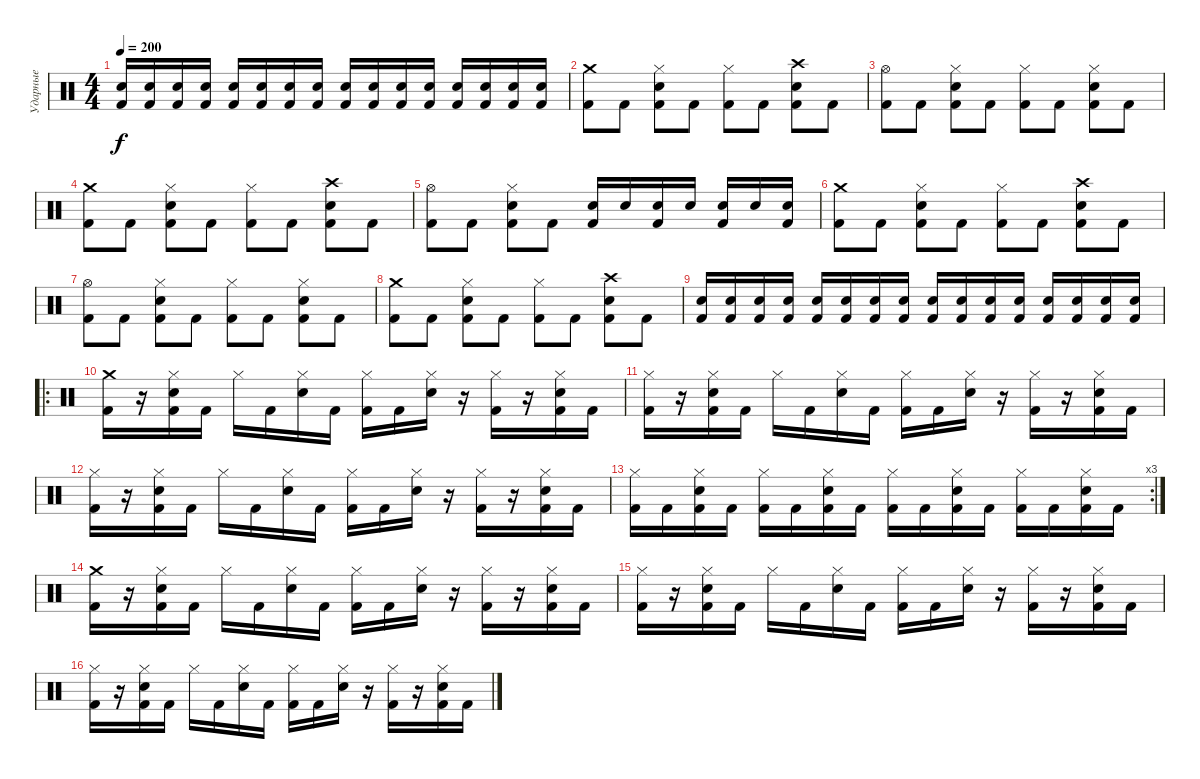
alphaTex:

\track ("Ударные" "Ударные") {instrument percussion}
\staff {score}
\articulation defaults
\ts (4 4)
\tempo 200
\clef neutral
\ks c
("Snare (hit) 2" "Kick (hit) 2").16{dy f} ("Snare (hit) 2" "Kick (hit) 2").16 ("Snare (hit) 2" "Kick (hit) 2").16 ("Snare (hit) 2" "Kick (hit) 2").16 ("Snare (hit) 2" "Kick (hit) 2").16 ("Snare (hit) 2" "Kick (hit) 2").16 ("Snare (hit) 2" "Kick (hit) 2").16 ("Snare (hit) 2" "Kick (hit) 2").16 ("Snare (hit) 2" "Kick (hit) 2").16 ("Snare (hit) 2" "Kick (hit) 2").16 ("Snare (hit) 2" "Kick (hit) 2").16 ("Snare (hit) 2" "Kick (hit) 2").16 ("Snare (hit) 2" "Kick (hit) 2").16 ("Snare (hit) 2" "Kick (hit) 2").16 ("Snare (hit) 2" "Kick (hit) 2").16 ("Snare (hit) 2" "Kick (hit) 2").16 |
("Crash medium (hit)" "Kick (hit) 2").8 "Kick (hit) 2".8 ("Hi-Hat (closed)" "Snare (hit) 2" "Kick (hit) 2").8 "Kick (hit) 2".8 ("Hi-Hat (closed)" "Kick (hit) 2").8 "Kick (hit) 2".8 ("Crash high (hit)" "Snare (hit) 2" "Kick (hit) 2").8 "Kick (hit) 2".8 |
("Hi-Hat (open)" "Kick (hit) 2").8 "Kick (hit) 2".8 ("Hi-Hat (closed)" "Snare (hit) 2" "Kick (hit) 2").8 "Kick (hit) 2".8 ("Hi-Hat (closed)" "Kick (hit) 2").8 "Kick (hit) 2".8 ("Hi-Hat (closed)" "Snare (hit) 2" "Kick (hit) 2").8 "Kick (hit) 2".8 |
("Crash medium (hit)" "Kick (hit) 2").8 "Kick (hit) 2".8 ("Hi-Hat (closed)" "Snare (hit) 2" "Kick (hit) 2").8 "Kick (hit) 2".8 ("Hi-Hat (closed)" "Kick (hit) 2").8 "Kick (hit) 2".8 ("Crash high (hit)" "Snare (hit) 2" "Kick (hit) 2").8 "Kick (hit) 2".8 |
("Hi-Hat (open)" "Kick (hit) 2").8 "Kick (hit) 2".8 ("Hi-Hat (closed)" "Snare (hit) 2" "Kick (hit) 2").8 "Kick (hit) 2".8 ("Snare (hit) 2" "Kick (hit) 2").16 "Snare (hit) 2".16 ("Snare (hit) 2" "Kick (hit) 2").16 "Snare (hit) 2".16 ("Snare (hit) 2" "Kick (hit) 2").16 "Snare (hit) 2".16 ("Snare (hit) 2" "Kick (hit) 2").16 |
("Crash medium (hit)" "Kick (hit) 2").8 "Kick (hit) 2".8 ("Hi-Hat (closed)" "Snare (hit) 2" "Kick (hit) 2").8 "Kick (hit) 2".8 ("Hi-Hat (closed)" "Kick (hit) 2").8 "Kick (hit) 2".8 ("Crash high (hit)" "Snare (hit) 2" "Kick (hit) 2").8 "Kick (hit) 2".8 |
("Hi-Hat (open)" "Kick (hit) 2").8 "Kick (hit) 2".8 ("Hi-Hat (closed)" "Snare (hit) 2" "Kick (hit) 2").8 "Kick (hit) 2".8 ("Hi-Hat (closed)" "Kick (hit) 2").8 "Kick (hit) 2".8 ("Hi-Hat (closed)" "Snare (hit) 2" "Kick (hit) 2").8 "Kick (hit) 2".8 |
("Crash medium (hit)" "Kick (hit) 2").8 "Kick (hit) 2".8 ("Hi-Hat (closed)" "Snare (hit) 2" "Kick (hit) 2").8 "Kick (hit) 2".8 ("Hi-Hat (closed)" "Kick (hit) 2").8 "Kick (hit) 2".8 ("Crash high (hit)" "Snare (hit) 2" "Kick (hit) 2").8 "Kick (hit) 2".8 |
("Snare (hit) 2" "Kick (hit) 2").16 ("Snare (hit) 2" "Kick (hit) 2").16 ("Snare (hit) 2" "Kick (hit) 2").16 ("Snare (hit) 2" "Kick (hit) 2").16 ("Snare (hit) 2" "Kick (hit) 2").16 ("Snare (hit) 2" "Kick (hit) 2").16 ("Snare (hit) 2" "Kick (hit) 2").16 ("Snare (hit) 2" "Kick (hit) 2").16 ("Snare (hit) 2" "Kick (hit) 2").16 ("Snare (hit) 2" "Kick (hit) 2").16 ("Snare (hit) 2" "Kick (hit) 2").16 ("Snare (hit) 2" "Kick (hit) 2").16 ("Snare (hit) 2" "Kick (hit) 2").16 ("Snare (hit) 2" "Kick (hit) 2").16 ("Snare (hit) 2" "Kick (hit) 2").16 ("Snare (hit) 2" "Kick (hit) 2").16 |
\ro
("Crash medium (hit)" "Kick (hit) 2").16 r.16 ("Hi-Hat (closed)" "Snare (hit) 2" "Kick (hit) 2").16 "Kick (hit) 2".16 "Hi-Hat (closed)".16 "Kick (hit) 2".16 ("Hi-Hat (closed)" "Snare (hit) 2").16 "Kick (hit) 2".16 ("Hi-Hat (closed)" "Kick (hit) 2").16 "Kick (hit) 2".16 ("Hi-Hat (closed)" "Snare (hit) 2").16 r.16 ("Hi-Hat (closed)" "Kick (hit) 2").16 r.16 ("Hi-Hat (closed)" "Snare (hit) 2" "Kick (hit) 2").16 "Kick (hit) 2".16 |
("Hi-Hat (closed)" "Kick (hit) 2").16 r.16 ("Hi-Hat (closed)" "Snare (hit) 2" "Kick (hit) 2").16 "Kick (hit) 2".16 "Hi-Hat (closed)".16 "Kick (hit) 2".16 ("Hi-Hat (closed)" "Snare (hit) 2").16 "Kick (hit) 2".16 ("Hi-Hat (closed)" "Kick (hit) 2").16 "Kick (hit) 2".16 ("Hi-Hat (closed)" "Snare (hit) 2").16 r.16 ("Hi-Hat (closed)" "Kick (hit) 2").16 r.16 ("Hi-Hat (closed)" "Snare (hit) 2" "Kick (hit) 2").16 "Kick (hit) 2".16 |
("Hi-Hat (closed)" "Kick (hit) 2").16 r.16 ("Hi-Hat (closed)" "Snare (hit) 2" "Kick (hit) 2").16 "Kick (hit) 2".16 "Hi-Hat (closed)".16 "Kick (hit) 2".16 ("Hi-Hat (closed)" "Snare (hit) 2").16 "Kick (hit) 2".16 ("Hi-Hat (closed)" "Kick (hit) 2").16 "Kick (hit) 2".16 ("Hi-Hat (closed)" "Snare (hit) 2").16 r.16 ("Hi-Hat (closed)" "Kick (hit) 2").16 r.16 ("Hi-Hat (closed)" "Snare (hit) 2" "Kick (hit) 2").16 "Kick (hit) 2".16 |
\rc 3
("Hi-Hat (closed)" "Kick (hit) 2").16 "Kick (hit) 2".16 ("Hi-Hat (closed)" "Snare (hit) 2" "Kick (hit) 2").16 "Kick (hit) 2".16 ("Hi-Hat (closed)" "Kick (hit) 2").16 "Kick (hit) 2".16 ("Hi-Hat (closed)" "Snare (hit) 2" "Kick (hit) 2").16 "Kick (hit) 2".16 ("Hi-Hat (closed)" "Kick (hit) 2").16 "Kick (hit) 2".16 ("Hi-Hat (closed)" "Snare (hit) 2" "Kick (hit) 2").16 "Kick (hit) 2".16 ("Hi-Hat (closed)" "Kick (hit) 2").16 "Kick (hit) 2".16 ("Hi-Hat (closed)" "Snare (hit) 2" "Kick (hit) 2").16 "Kick (hit) 2".16 |
("Crash medium (hit)" "Kick (hit) 2").16 r.16 ("Hi-Hat (closed)" "Snare (hit) 2" "Kick (hit) 2").16 "Kick (hit) 2".16 "Hi-Hat (closed)".16 "Kick (hit) 2".16 ("Hi-Hat (closed)" "Snare (hit) 2").16 "Kick (hit) 2".16 ("Hi-Hat (closed)" "Kick (hit) 2").16 "Kick (hit) 2".16 ("Hi-Hat (closed)" "Snare (hit) 2").16 r.16 ("Hi-Hat (closed)" "Kick (hit) 2").16 r.16 ("Hi-Hat (closed)" "Snare (hit) 2" "Kick (hit) 2").16 "Kick (hit) 2".16 |
("Hi-Hat (closed)" "Kick (hit) 2").16 r.16 ("Hi-Hat (closed)" "Snare (hit) 2" "Kick (hit) 2").16 "Kick (hit) 2".16 "Hi-Hat (closed)".16 "Kick (hit) 2".16 ("Hi-Hat (closed)" "Snare (hit) 2").16 "Kick (hit) 2".16 ("Hi-Hat (closed)" "Kick (hit) 2").16 "Kick (hit) 2".16 ("Hi-Hat (closed)" "Snare (hit) 2").16 r.16 ("Hi-Hat (closed)" "Kick (hit) 2").16 r.16 ("Hi-Hat (closed)" "Snare (hit) 2" "Kick (hit) 2").16 "Kick (hit) 2".16 |
("Hi-Hat (closed)" "Kick (hit) 2").16 r.16 ("Hi-Hat (closed)" "Snare (hit) 2" "Kick (hit) 2").16 "Kick (hit) 2".16 "Hi-Hat (closed)".16 "Kick (hit) 2".16 ("Hi-Hat (closed)" "Snare (hit) 2").16 "Kick (hit) 2".16 ("Hi-Hat (closed)" "Kick (hit) 2").16 "Kick (hit) 2".16 ("Hi-Hat (closed)" "Snare (hit) 2").16 r.16 ("Hi-Hat (closed)" "Kick (hit) 2").16 r.16 ("Hi-Hat (closed)" "Snare (hit) 2" "Kick (hit) 2").16 "Kick (hit) 2".16
